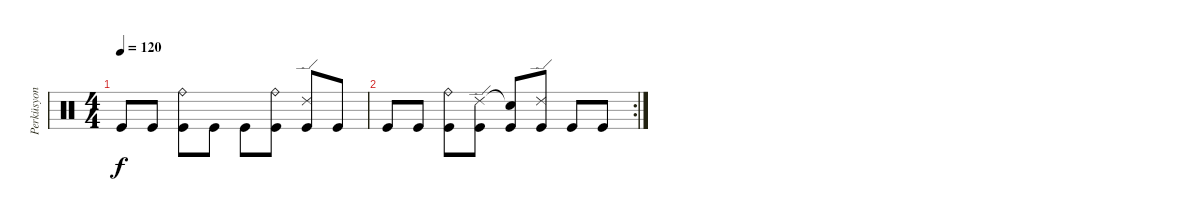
\track ("Perküsyon" "Perküsyon") {instrument percussion}
\staff {score}
\articulation defaults
\ts (4 4)
\tempo 120
\clef neutral
\ks c "Kick (hit)".8{dy f} "Kick (hit)".8
("Ride (bell)" "Kick (hit)").8 "Kick (hit)".8 "Kick (hit)".8 ("Ride (bell)" "Kick (hit)").8 ("Ride (edge) 2" "Kick (hit)").8 "Kick (hit)".8 |
\rc 2 "Kick (hit)".8 "Kick (hit)".8
("Ride (bell)" "Kick (hit)").8 ("Ride (edge) 2" "Kick (hit)").8 ("Snare (hit)"{t} "Kick (hit)").8 ("Ride (edge) 2" "Kick (hit)").8 "Kick (hit)".8 "Kick (hit)".8
